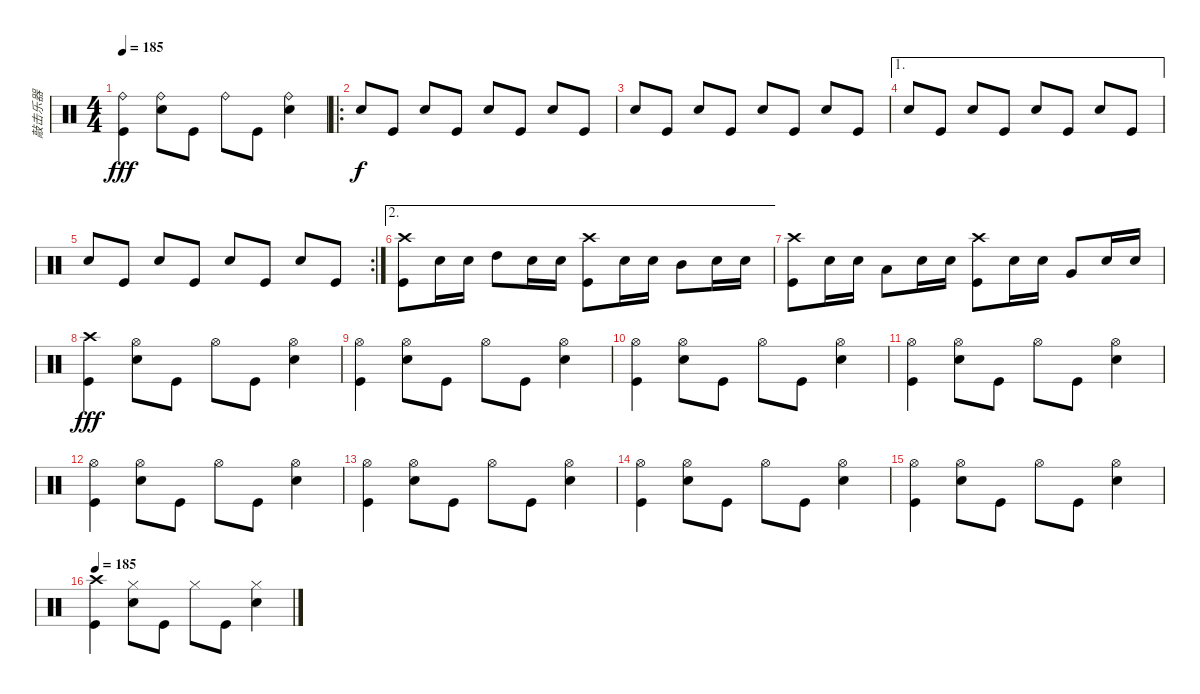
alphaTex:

\track ("敲击乐器" "敲击乐器") {instrument percussion}
\staff {score}
\articulation defaults
\ts (4 4)
\tempo 185
\clef neutral
\ks c
("Ride (bell)" "Kick (hit)").4{dy fff} ("Ride (bell)" "Snare (hit) 2").8 "Kick (hit)".8 "Ride (bell)".8 "Kick (hit)".8 ("Ride (bell)" "Snare (hit) 2").4 |
\ro "Snare (hit) 2".8{dy f} "Kick (hit)".8 "Snare (hit) 2".8 "Kick (hit)".8 "Snare (hit) 2".8 "Kick (hit)".8 "Snare (hit) 2".8 "Kick (hit)".8
|
"Snare (hit) 2".8 "Kick (hit)".8 "Snare (hit) 2".8 "Kick (hit)".8 "Snare (hit) 2".8 "Kick (hit)".8 "Snare (hit) 2".8 "Kick (hit)".8 |
\ae 1 "Snare (hit) 2".8 "Kick (hit)".8 "Snare (hit) 2".8 "Kick (hit)".8 "Snare (hit) 2".8 "Kick (hit)".8 "Snare (hit) 2".8 "Kick (hit)".8
|
\rc 2 "Snare (hit) 2".8 "Kick (hit)".8 "Snare (hit) 2".8 "Kick (hit)".8 "Snare (hit) 2".8 "Kick (hit)".8 "Snare (hit) 2".8 "Kick (hit)".8
|
\ae 2
("Crash high (hit)" "Kick (hit)").8 "Snare (hit) 2".16 "Snare (hit) 2".16 "High Tom (hit)".8 "Snare (hit) 2".16 "Snare (hit) 2".16 ("Crash high (hit)" "Kick (hit)").8 "Snare (hit) 2".16 "Snare (hit) 2".16 "Mid Tom (hit)".8 "Snare (hit) 2".16 "Snare (hit) 2".16 |
("Crash high (hit)" "Kick (hit)").8 "Snare (hit) 2".16 "Snare (hit) 2".16 "Low Tom (hit)".8 "Snare (hit) 2".16 "Snare (hit) 2".16 ("Crash high (hit)" "Kick (hit)").8 "Snare (hit) 2".16 "Snare (hit) 2".16 "Very Low Tom (hit)".8 "Snare (hit) 2".16 "Snare (hit) 2".16 |
("Crash high (hit)" "Kick (hit)").4{dy fff} ("Hi-Hat (open)" "Snare (hit) 2").8 "Kick (hit)".8 "Hi-Hat (open)".8 "Kick (hit)".8 ("Hi-Hat (open)" "Snare (hit) 2").4 |
("Hi-Hat (open)" "Kick (hit)").4 ("Hi-Hat (open)" "Snare (hit) 2").8 "Kick (hit)".8 "Hi-Hat (open)".8 "Kick (hit)".8 ("Hi-Hat (open)" "Snare (hit) 2").4 |
("Hi-Hat (open)" "Kick (hit)").4 ("Hi-Hat (open)" "Snare (hit) 2").8 "Kick (hit)".8 "Hi-Hat (open)".8 "Kick (hit)".8 ("Hi-Hat (open)" "Snare (hit) 2").4 |
("Hi-Hat (open)" "Kick (hit)").4 ("Hi-Hat (open)" "Snare (hit) 2").8 "Kick (hit)".8 "Hi-Hat (open)".8 "Kick (hit)".8 ("Hi-Hat (open)" "Snare (hit) 2").4 |
("Hi-Hat (open)" "Kick (hit)").4 ("Hi-Hat (open)" "Snare (hit) 2").8 "Kick (hit)".8 "Hi-Hat (open)".8 "Kick (hit)".8 ("Hi-Hat (open)" "Snare (hit) 2").4 |
("Hi-Hat (open)" "Kick (hit)").4 ("Hi-Hat (open)" "Snare (hit) 2").8 "Kick (hit)".8 "Hi-Hat (open)".8 "Kick (hit)".8 ("Hi-Hat (open)" "Snare (hit) 2").4 |
("Hi-Hat (open)" "Kick (hit)").4 ("Hi-Hat (open)" "Snare (hit) 2").8 "Kick (hit)".8 "Hi-Hat (open)".8 "Kick (hit)".8 ("Hi-Hat (open)" "Snare (hit) 2").4 |
("Hi-Hat (open)" "Kick (hit)").4 ("Hi-Hat (open)" "Snare (hit) 2").8 "Kick (hit)".8 "Hi-Hat (open)".8 "Kick (hit)".8 ("Hi-Hat (open)" "Snare (hit) 2").4 |
\tempo 185
("Crash high (hit)" "Kick (hit)").4 ("Hi-Hat (closed)" "Snare (hit) 2").8 "Kick (hit)".8 "Hi-Hat (closed)".8 "Kick (hit)".8 ("Hi-Hat (closed)" "Snare (hit) 2").4
